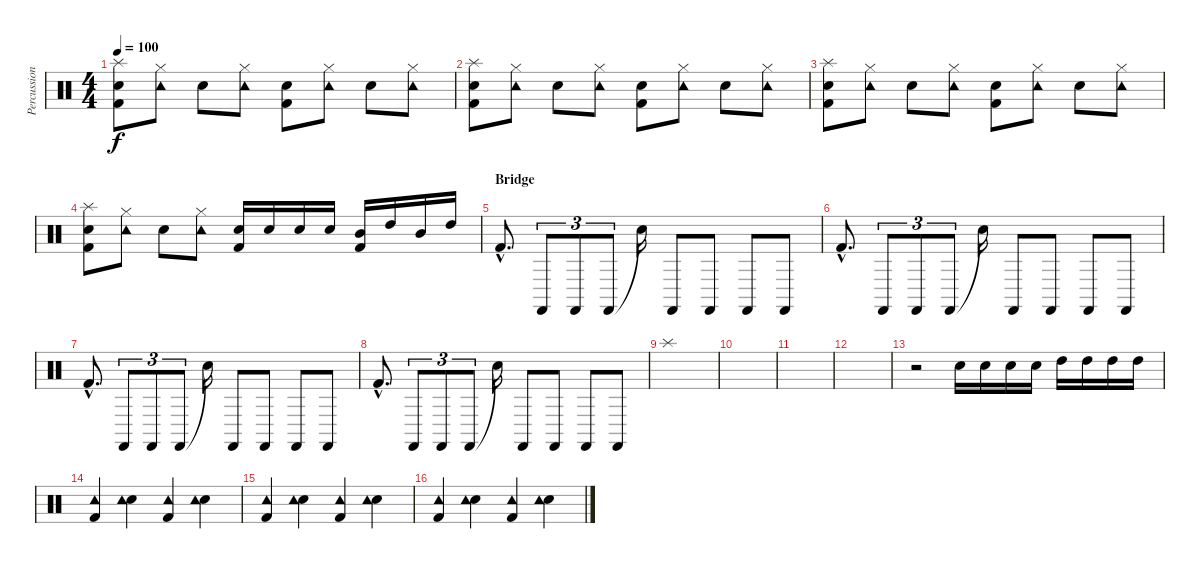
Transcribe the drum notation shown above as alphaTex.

\track ("Percussion" "Percussion") {instrument percussion}
\staff {score}
\articulation defaults
\ts (4 4)
\tempo 100
\clef neutral
\ks c
("Splash (hit)" "Electric Snare (hit)" "Kick (hit) 2").8{dy f} ("Hi-Hat (closed)" "Tambourine (hit)").8 "Electric Snare (hit)".8 ("Hi-Hat (closed)" "Tambourine (hit)").8 ("Electric Snare (hit)" "Kick (hit) 2").8 ("Hi-Hat (closed)" "Tambourine (hit)").8 "Electric Snare (hit)".8 ("Hi-Hat (closed)" "Tambourine (hit)").8 |
("Splash (hit)" "Electric Snare (hit)" "Kick (hit) 2").8 ("Hi-Hat (closed)" "Tambourine (hit)").8 "Electric Snare (hit)".8 ("Hi-Hat (closed)" "Tambourine (hit)").8 ("Electric Snare (hit)" "Kick (hit) 2").8 ("Hi-Hat (closed)" "Tambourine (hit)").8 "Electric Snare (hit)".8 ("Hi-Hat (closed)" "Tambourine (hit)").8 |
("Splash (hit)" "Electric Snare (hit)" "Kick (hit) 2").8 ("Hi-Hat (closed)" "Tambourine (hit)").8 "Electric Snare (hit)".8 ("Hi-Hat (closed)" "Tambourine (hit)").8 ("Electric Snare (hit)" "Kick (hit) 2").8 ("Hi-Hat (closed)" "Tambourine (hit)").8 "Electric Snare (hit)".8 ("Hi-Hat (closed)" "Tambourine (hit)").8 |
("Splash (hit)" "Electric Snare (hit)" "Kick (hit) 2").8 ("Hi-Hat (closed)" "Tambourine (hit)").8 "Electric Snare (hit)".8 ("Hi-Hat (closed)" "Tambourine (hit)").8 ("Electric Snare (hit)" "Kick (hit) 2").16 "Electric Snare (hit)".16 "Electric Snare (hit)".16 "Electric Snare (hit)".16 ("Mid Tom (hit)" "Kick (hit) 2").16 "High Tom (hit)".16 "Mid Tom (hit)".16 "High Tom (hit)".16 |
\section ("" "Bridge")
"Kick (hit) 2"{hac}.8{d} "Castanets (hit)".8{tu (3 2)} "Castanets (hit)".8{tu (3 2)} "Castanets (hit)".8{tu (3 2)} "Snare (hit)"{t}.16 "Castanets (hit)".8 "Castanets (hit)".8 "Castanets (hit)".8 "Castanets (hit)".8 |
"Kick (hit) 2"{hac}.8{d} "Castanets (hit)".8{tu (3 2)} "Castanets (hit)".8{tu (3 2)} "Castanets (hit)".8{tu (3 2)} "Snare (hit)"{t}.16 "Castanets (hit)".8 "Castanets (hit)".8 "Castanets (hit)".8 "Castanets (hit)".8 |
"Kick (hit) 2"{hac}.8{d} "Castanets (hit)".8{tu (3 2)} "Castanets (hit)".8{tu (3 2)} "Castanets (hit)".8{tu (3 2)} "Snare (hit)"{t}.16 "Castanets (hit)".8 "Castanets (hit)".8 "Castanets (hit)".8 "Castanets (hit)".8 |
"Kick (hit) 2"{hac}.8{d} "Castanets (hit)".8{tu (3 2)} "Castanets (hit)".8{tu (3 2)} "Castanets (hit)".8{tu (3 2)} "Snare (hit)"{t}.16 "Castanets (hit)".8 "Castanets (hit)".8 "Castanets (hit)".8 "Castanets (hit)".8 |
"Splash (hit)".1 |
|
|
|
r.2 "Electric Snare (hit)".16 "Electric Snare (hit)".16 "Electric Snare (hit)".16 "Electric Snare (hit)".16 "High Tom (hit)".16 "High Tom (hit)".16 "High Tom (hit)".16 "High Tom (hit)".16 |
("Tambourine (hit)" "Kick (hit) 2").4 ("Electric Snare (hit)" "Tambourine (hit)").4 ("Tambourine (hit)" "Kick (hit) 2").4 ("Electric Snare (hit)" "Tambourine (hit)").4 |
("Tambourine (hit)" "Kick (hit) 2").4 ("Electric Snare (hit)" "Tambourine (hit)").4 ("Tambourine (hit)" "Kick (hit) 2").4 ("Electric Snare (hit)" "Tambourine (hit)").4 |
("Tambourine (hit)" "Kick (hit) 2").4 ("Electric Snare (hit)" "Tambourine (hit)").4 ("Tambourine (hit)" "Kick (hit) 2").4 ("Electric Snare (hit)" "Tambourine (hit)").4
